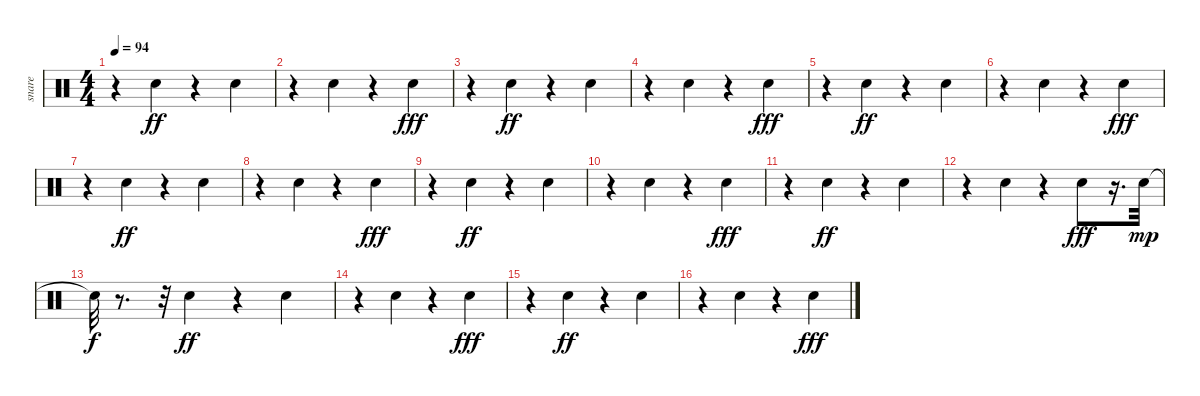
\track ("snare" "snare") {instrument percussion}
\staff {score}
\articulation defaults
\ts (4 4)
\tempo 94
\clef neutral
\ks c
r.4{dy fff} "Electric Snare (hit)".4{dy ff} r.4 "Electric Snare (hit)".4 |
r.4 "Electric Snare (hit)".4 r.4 "Electric Snare (hit)".4{dy fff} |
r.4 "Electric Snare (hit)".4{dy ff} r.4 "Electric Snare (hit)".4 |
r.4 "Electric Snare (hit)".4 r.4 "Electric Snare (hit)".4{dy fff} |
r.4 "Electric Snare (hit)".4{dy ff} r.4 "Electric Snare (hit)".4 |
r.4 "Electric Snare (hit)".4 r.4 "Electric Snare (hit)".4{dy fff} |
r.4 "Electric Snare (hit)".4{dy ff} r.4 "Electric Snare (hit)".4 |
r.4 "Electric Snare (hit)".4 r.4 "Electric Snare (hit)".4{dy fff} |
r.4 "Electric Snare (hit)".4{dy ff} r.4 "Electric Snare (hit)".4 |
r.4 "Electric Snare (hit)".4 r.4 "Electric Snare (hit)".4{dy fff} |
r.4 "Electric Snare (hit)".4{dy ff} r.4 "Electric Snare (hit)".4 |
r.4 "Electric Snare (hit)".4 r.4 "Electric Snare (hit)".8{dy fff} r.16{d} "Electric Snare (hit)".32{dy mp} |
"Snare (hit)"{t}.32{dy f} r.8{d} r.32 "Electric Snare (hit)".4{dy ff} r.4 "Electric Snare (hit)".4 |
r.4 "Electric Snare (hit)".4 r.4 "Electric Snare (hit)".4{dy fff} |
r.4 "Electric Snare (hit)".4{dy ff} r.4 "Electric Snare (hit)".4 |
r.4 "Electric Snare (hit)".4 r.4 "Electric Snare (hit)".4{dy fff}
